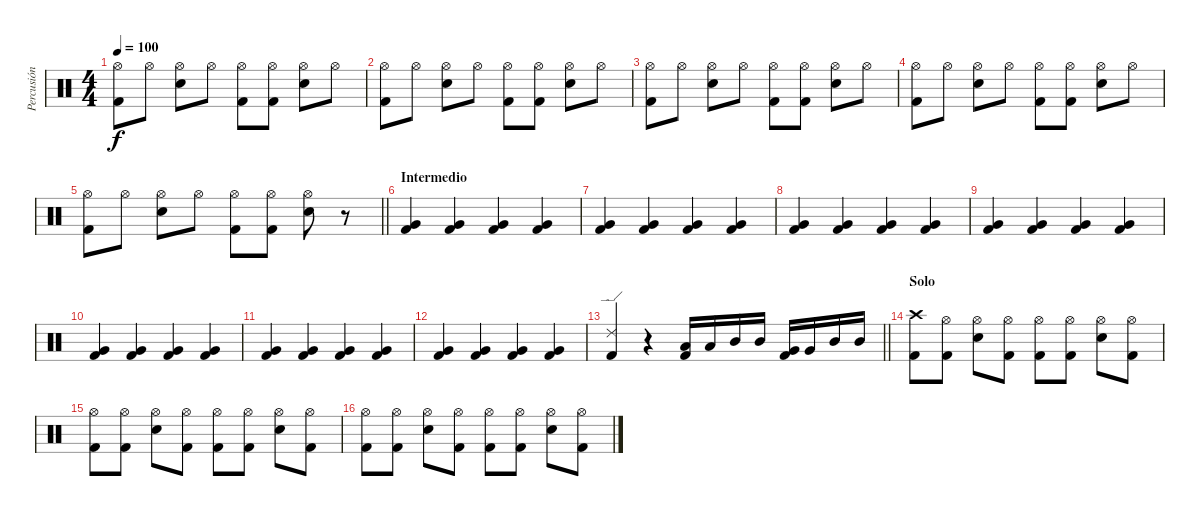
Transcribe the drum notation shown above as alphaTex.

\track ("Percusión" "Percusión") {instrument percussion}
\staff {score}
\articulation defaults
\ts (4 4)
\tempo 100
\clef neutral
\ks c
("Hi-Hat (open)" "Kick (hit) 2").8{dy f} "Hi-Hat (open)".8 ("Hi-Hat (open)" "Snare (hit) 2").8 "Hi-Hat (open)".8 ("Hi-Hat (open)" "Kick (hit) 2").8 ("Hi-Hat (open)" "Kick (hit) 2").8 ("Hi-Hat (open)" "Snare (hit) 2").8 "Hi-Hat (open)".8 |
("Hi-Hat (open)" "Kick (hit) 2").8 "Hi-Hat (open)".8 ("Hi-Hat (open)" "Snare (hit) 2").8 "Hi-Hat (open)".8 ("Hi-Hat (open)" "Kick (hit) 2").8 ("Hi-Hat (open)" "Kick (hit) 2").8 ("Hi-Hat (open)" "Snare (hit) 2").8 "Hi-Hat (open)".8 |
("Hi-Hat (open)" "Kick (hit) 2").8 "Hi-Hat (open)".8 ("Hi-Hat (open)" "Snare (hit) 2").8 "Hi-Hat (open)".8 ("Hi-Hat (open)" "Kick (hit) 2").8 ("Hi-Hat (open)" "Kick (hit) 2").8 ("Hi-Hat (open)" "Snare (hit) 2").8 "Hi-Hat (open)".8 |
("Hi-Hat (open)" "Kick (hit) 2").8 "Hi-Hat (open)".8 ("Hi-Hat (open)" "Snare (hit) 2").8 "Hi-Hat (open)".8 ("Hi-Hat (open)" "Kick (hit) 2").8 ("Hi-Hat (open)" "Kick (hit) 2").8 ("Hi-Hat (open)" "Snare (hit) 2").8 "Hi-Hat (open)".8 |
\barLineRight lightlight
("Hi-Hat (open)" "Kick (hit) 2").8 "Hi-Hat (open)".8 ("Hi-Hat (open)" "Snare (hit) 2").8 "Hi-Hat (open)".8 ("Hi-Hat (open)" "Kick (hit) 2").8 ("Hi-Hat (open)" "Kick (hit) 2").8 ("Hi-Hat (open)" "Snare (hit) 2").8 r.8 |
\section ("" "Intermedio")
("Very Low Tom (hit)" "Kick (hit) 2").4 ("Very Low Tom (hit)" "Kick (hit) 2").4 ("Very Low Tom (hit)" "Kick (hit) 2").4 ("Very Low Tom (hit)" "Kick (hit) 2").4 |
("Very Low Tom (hit)" "Kick (hit) 2").4 ("Very Low Tom (hit)" "Kick (hit) 2").4 ("Very Low Tom (hit)" "Kick (hit) 2").4 ("Very Low Tom (hit)" "Kick (hit) 2").4 |
("Very Low Tom (hit)" "Kick (hit) 2").4 ("Very Low Tom (hit)" "Kick (hit) 2").4 ("Very Low Tom (hit)" "Kick (hit) 2").4 ("Very Low Tom (hit)" "Kick (hit) 2").4 |
("Very Low Tom (hit)" "Kick (hit) 2").4 ("Very Low Tom (hit)" "Kick (hit) 2").4 ("Very Low Tom (hit)" "Kick (hit) 2").4 ("Very Low Tom (hit)" "Kick (hit) 2").4 |
("Very Low Tom (hit)" "Kick (hit) 2").4 ("Very Low Tom (hit)" "Kick (hit) 2").4 ("Very Low Tom (hit)" "Kick (hit) 2").4 ("Very Low Tom (hit)" "Kick (hit) 2").4 |
("Very Low Tom (hit)" "Kick (hit) 2").4 ("Very Low Tom (hit)" "Kick (hit) 2").4 ("Very Low Tom (hit)" "Kick (hit) 2").4 ("Very Low Tom (hit)" "Kick (hit) 2").4 |
("Very Low Tom (hit)" "Kick (hit) 2").4 ("Very Low Tom (hit)" "Kick (hit) 2").4 ("Very Low Tom (hit)" "Kick (hit) 2").4 ("Very Low Tom (hit)" "Kick (hit) 2").4 |
\barLineRight lightlight
("Ride (edge) 2" "Kick (hit) 2").4 r.4 ("Low Tom (hit)" "Kick (hit) 2").16 "Low Tom (hit)".16 "Mid Tom (hit)".16 "Mid Tom (hit)".16 ("Very Low Tom (hit)" "Kick (hit) 2").16 "Very Low Tom (hit)".16 "Mid Tom (hit)".16 "Mid Tom (hit)".16 |
\section ("" "Solo")
("Crash high (hit)" "Kick (hit) 2").8 ("Hi-Hat (open)" "Kick (hit) 2").8 ("Hi-Hat (open)" "Snare (hit) 2").8 ("Hi-Hat (open)" "Kick (hit) 2").8 ("Hi-Hat (open)" "Kick (hit) 2").8 ("Hi-Hat (open)" "Kick (hit) 2").8 ("Hi-Hat (open)" "Snare (hit) 2").8 ("Hi-Hat (open)" "Kick (hit) 2").8 |
("Hi-Hat (open)" "Kick (hit) 2").8 ("Hi-Hat (open)" "Kick (hit) 2").8 ("Hi-Hat (open)" "Snare (hit) 2").8 ("Hi-Hat (open)" "Kick (hit) 2").8 ("Hi-Hat (open)" "Kick (hit) 2").8 ("Hi-Hat (open)" "Kick (hit) 2").8 ("Hi-Hat (open)" "Snare (hit) 2").8 ("Hi-Hat (open)" "Kick (hit) 2").8 |
("Hi-Hat (open)" "Kick (hit) 2").8 ("Hi-Hat (open)" "Kick (hit) 2").8 ("Hi-Hat (open)" "Snare (hit) 2").8 ("Hi-Hat (open)" "Kick (hit) 2").8 ("Hi-Hat (open)" "Kick (hit) 2").8 ("Hi-Hat (open)" "Kick (hit) 2").8 ("Hi-Hat (open)" "Snare (hit) 2").8 ("Hi-Hat (open)" "Kick (hit) 2").8
